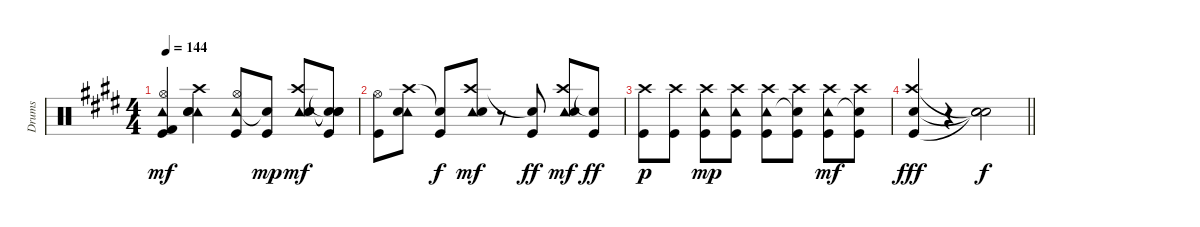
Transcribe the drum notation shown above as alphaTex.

\track ("Drums" "Drums") {instrument percussion}
\staff {score}
\articulation defaults
\ts (4 4)
\tempo 144
\clef neutral
\ks c#minor
("Tambourine (hit)" "Hi-Hat (open)" "Kick (hit) 2" "Kick (hit)").4{dy mf} ("Crash high (hit)" "Tambourine (hit)" "Snare (hit) 2" "Electric Snare (hit)").4 ("Tambourine (hit)" "Hi-Hat (open)" "Kick (hit)").8 ("Snare (hit)"{t} "Kick (hit)").8{dy mp} ("Crash high (hit)" "Tambourine (hit)" "Snare (hit) 2" "Electric Snare (hit)").8{dy mf} ("Snare (hit)"{t} "Snare (hit)"{t} "Snare (hit)"{t} "Kick (hit)").8 |
\ks e
("Hi-Hat (open)" "Kick (hit)").8 ("Crash high (hit)" "Tambourine (hit)" "Snare (hit) 2").8 ("Snare (hit)"{t} "Kick (hit)").8{dy f} ("Crash high (hit)" "Tambourine (hit)" "Snare (hit) 2").8{dy mf} r.8 ("Snare (hit)"{t} "Kick (hit)").8{dy ff} ("Crash high (hit)" "Tambourine (hit)" "Snare (hit) 2").8{dy mf} ("Snare (hit)"{t} "Kick (hit)").8{dy ff} |
\ks c#minor
("Crash high (hit)" "Kick (hit)").8{dy p} ("Crash high (hit)" "Kick (hit)").8 ("Crash high (hit)" "Tambourine (hit)" "Kick (hit)").8{dy mp} ("Crash high (hit)" "Tambourine (hit)" "Kick (hit)").8 ("Crash high (hit)" "Tambourine (hit)" "Kick (hit)").8 ("Crash high (hit)" "Snare (hit)"{t} "Kick (hit)").8 ("Crash high (hit)" "Tambourine (hit)" "Kick (hit)").8{dy mf} ("Crash high (hit)" "Snare (hit)"{t} "Kick (hit)").8 |
\barLineRight lightlight
\ks e
("Crash high (hit)" "Snare (hit) 2" "Kick (hit)").4{dy fff} r.4 ("Snare (hit)"{t} "Snare (hit)"{t} "Snare (hit)"{t}).2{dy f}
